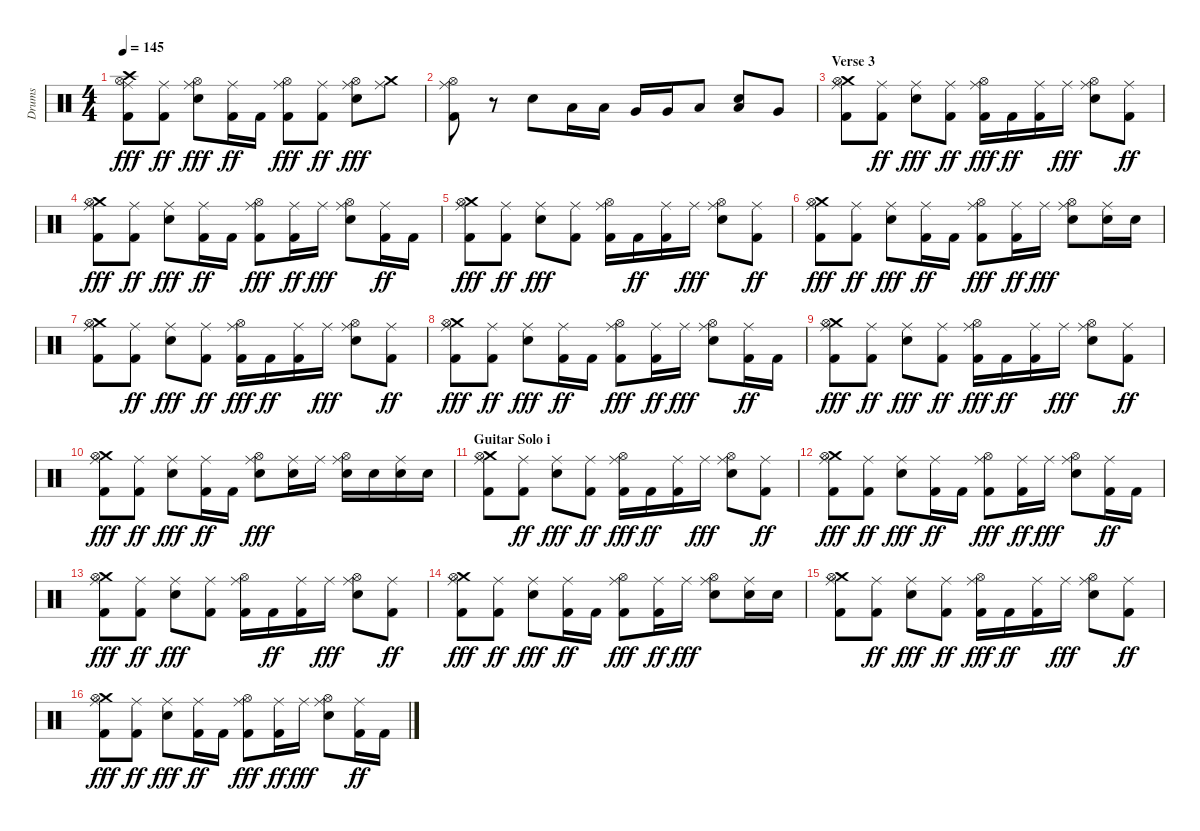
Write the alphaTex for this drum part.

\track ("Drums" "Drums") {instrument percussion}
\staff {score}
\articulation defaults
\ts (4 4)
\tempo 145
\clef neutral
\ks c
("Ride (middle)" "Crash high (hit)" "Hi-Hat (open)" "Kick (hit) 2").8{dy fff} ("Ride (middle)" "Kick (hit) 2").8{dy ff} ("Ride (middle)" "Hi-Hat (open)" "Snare (hit) 2").8{dy fff} ("Ride (middle)" "Kick (hit) 2").16{dy ff} "Kick (hit) 2".16 ("Ride (middle)" "Hi-Hat (open)" "Kick (hit) 2").8{dy fff} ("Ride (middle)" "Kick (hit) 2").8{dy ff} ("Ride (middle)" "Hi-Hat (open)" "Snare (hit) 2").8{dy fff} ("Ride (middle)" "Crash medium (hit)").8 |
("Ride (middle)" "Hi-Hat (open)" "Kick (hit) 2").8 r.8 "Snare (hit) 2".8 "Low Tom (hit)".16 "Low Tom (hit)".16 "Very Low Tom (hit)".16 "Very Low Tom (hit)".16 "Low Floor Tom (hit)".8 ("Low Tom (hit)" "Snare (hit) 2").8 "Very Low Tom (hit)".8 |
\section ("" "Verse 3")
("Ride (middle)" "Crash medium (hit)" "Hi-Hat (open)" "Kick (hit) 2").8 ("Ride (middle)" "Kick (hit) 2").8{dy ff} ("Ride (middle)" "Snare (hit) 2").8{dy fff} ("Ride (middle)" "Kick (hit) 2").8{dy ff} ("Ride (middle)" "Hi-Hat (open)" "Kick (hit) 2").16{dy fff} "Kick (hit) 2".16{dy ff} ("Ride (middle)" "Kick (hit) 2").16 "Ride (middle)".16{dy fff} ("Ride (middle)" "Hi-Hat (open)" "Snare (hit) 2").8 ("Ride (middle)" "Kick (hit) 2").8{dy ff} |
("Ride (middle)" "Crash medium (hit)" "Hi-Hat (open)" "Kick (hit) 2").8{dy fff} ("Ride (middle)" "Kick (hit) 2").8{dy ff} ("Ride (middle)" "Snare (hit) 2").8{dy fff} ("Ride (middle)" "Kick (hit) 2").16{dy ff} "Kick (hit) 2".16 ("Ride (middle)" "Hi-Hat (open)" "Kick (hit) 2").8{dy fff} ("Ride (middle)" "Kick (hit) 2").16{dy ff} "Ride (middle)".16{dy fff} ("Ride (middle)" "Hi-Hat (open)" "Snare (hit) 2").8 ("Ride (middle)" "Kick (hit) 2").16{dy ff} "Kick (hit) 2".16 |
("Ride (middle)" "Crash medium (hit)" "Hi-Hat (open)" "Kick (hit) 2").8{dy fff} ("Ride (middle)" "Kick (hit) 2").8{dy ff} ("Ride (middle)" "Snare (hit) 2").8{dy fff} ("Ride (middle)" "Kick (hit) 2").8 ("Ride (middle)" "Hi-Hat (open)" "Kick (hit) 2").16 "Kick (hit) 2".16{dy ff} ("Ride (middle)" "Kick (hit) 2").16 "Ride (middle)".16{dy fff} ("Ride (middle)" "Hi-Hat (open)" "Snare (hit) 2").8 ("Ride (middle)" "Kick (hit) 2").8{dy ff} |
("Ride (middle)" "Crash medium (hit)" "Hi-Hat (open)" "Kick (hit) 2").8{dy fff} ("Ride (middle)" "Kick (hit) 2").8{dy ff} ("Ride (middle)" "Snare (hit) 2").8{dy fff} ("Ride (middle)" "Kick (hit) 2").16{dy ff} "Kick (hit) 2".16 ("Ride (middle)" "Hi-Hat (open)" "Kick (hit) 2").8{dy fff} ("Ride (middle)" "Kick (hit) 2").16{dy ff} "Ride (middle)".16{dy fff} ("Ride (middle)" "Hi-Hat (open)" "Snare (hit) 2").8 ("Ride (middle)" "Snare (hit) 2").16 "Snare (hit) 2".16 |
("Ride (middle)" "Crash medium (hit)" "Hi-Hat (open)" "Kick (hit) 2").8 ("Ride (middle)" "Kick (hit) 2").8{dy ff} ("Ride (middle)" "Snare (hit) 2").8{dy fff} ("Ride (middle)" "Kick (hit) 2").8{dy ff} ("Ride (middle)" "Hi-Hat (open)" "Kick (hit) 2").16{dy fff} "Kick (hit) 2".16{dy ff} ("Ride (middle)" "Kick (hit) 2").16 "Ride (middle)".16{dy fff} ("Ride (middle)" "Hi-Hat (open)" "Snare (hit) 2").8 ("Ride (middle)" "Kick (hit) 2").8{dy ff} |
("Ride (middle)" "Crash medium (hit)" "Hi-Hat (open)" "Kick (hit) 2").8{dy fff} ("Ride (middle)" "Kick (hit) 2").8{dy ff} ("Ride (middle)" "Snare (hit) 2").8{dy fff} ("Ride (middle)" "Kick (hit) 2").16{dy ff} "Kick (hit) 2".16 ("Ride (middle)" "Hi-Hat (open)" "Kick (hit) 2").8{dy fff} ("Ride (middle)" "Kick (hit) 2").16{dy ff} "Ride (middle)".16{dy fff} ("Ride (middle)" "Hi-Hat (open)" "Snare (hit) 2").8 ("Ride (middle)" "Kick (hit) 2").16{dy ff} "Kick (hit) 2".16 |
("Ride (middle)" "Crash medium (hit)" "Hi-Hat (open)" "Kick (hit) 2").8{dy fff} ("Ride (middle)" "Kick (hit) 2").8{dy ff} ("Ride (middle)" "Snare (hit) 2").8{dy fff} ("Ride (middle)" "Kick (hit) 2").8{dy ff} ("Ride (middle)" "Hi-Hat (open)" "Kick (hit) 2").16{dy fff} "Kick (hit) 2".16{dy ff} ("Ride (middle)" "Kick (hit) 2").16 "Ride (middle)".16{dy fff} ("Ride (middle)" "Hi-Hat (open)" "Snare (hit) 2").8 ("Ride (middle)" "Kick (hit) 2").8{dy ff} |
("Ride (middle)" "Crash medium (hit)" "Hi-Hat (open)" "Kick (hit) 2").8{dy fff} ("Ride (middle)" "Kick (hit) 2").8{dy ff} ("Ride (middle)" "Snare (hit) 2").8{dy fff} ("Ride (middle)" "Kick (hit) 2").16{dy ff} "Kick (hit) 2".16 ("Ride (middle)" "Hi-Hat (open)" "Snare (hit) 2").8{dy fff} ("Ride (middle)" "Snare (hit) 2").16 "Ride (middle)".16 ("Ride (middle)" "Hi-Hat (open)" "Snare (hit) 2").16 "Snare (hit) 2".16 ("Ride (middle)" "Snare (hit) 2").16 "Snare (hit) 2".16 |
\section ("" "Guitar Solo i")
("Ride (middle)" "Crash medium (hit)" "Hi-Hat (open)" "Kick (hit) 2").8 ("Ride (middle)" "Kick (hit) 2").8{dy ff} ("Ride (middle)" "Snare (hit) 2").8{dy fff} ("Ride (middle)" "Kick (hit) 2").8{dy ff} ("Ride (middle)" "Hi-Hat (open)" "Kick (hit) 2").16{dy fff} "Kick (hit) 2".16{dy ff} ("Ride (middle)" "Kick (hit) 2").16 "Ride (middle)".16{dy fff} ("Ride (middle)" "Hi-Hat (open)" "Snare (hit) 2").8 ("Ride (middle)" "Kick (hit) 2").8{dy ff} |
("Ride (middle)" "Crash medium (hit)" "Hi-Hat (open)" "Kick (hit) 2").8{dy fff} ("Ride (middle)" "Kick (hit) 2").8{dy ff} ("Ride (middle)" "Snare (hit) 2").8{dy fff} ("Ride (middle)" "Kick (hit) 2").16{dy ff} "Kick (hit) 2".16 ("Ride (middle)" "Hi-Hat (open)" "Kick (hit) 2").8{dy fff} ("Ride (middle)" "Kick (hit) 2").16{dy ff} "Ride (middle)".16{dy fff} ("Ride (middle)" "Hi-Hat (open)" "Snare (hit) 2").8 ("Ride (middle)" "Kick (hit) 2").16{dy ff} "Kick (hit) 2".16 |
("Ride (middle)" "Crash medium (hit)" "Hi-Hat (open)" "Kick (hit) 2").8{dy fff} ("Ride (middle)" "Kick (hit) 2").8{dy ff} ("Ride (middle)" "Snare (hit) 2").8{dy fff} ("Ride (middle)" "Kick (hit) 2").8 ("Ride (middle)" "Hi-Hat (open)" "Kick (hit) 2").16 "Kick (hit) 2".16{dy ff} ("Ride (middle)" "Kick (hit) 2").16 "Ride (middle)".16{dy fff} ("Ride (middle)" "Hi-Hat (open)" "Snare (hit) 2").8 ("Ride (middle)" "Kick (hit) 2").8{dy ff} |
("Ride (middle)" "Crash medium (hit)" "Hi-Hat (open)" "Kick (hit) 2").8{dy fff} ("Ride (middle)" "Kick (hit) 2").8{dy ff} ("Ride (middle)" "Snare (hit) 2").8{dy fff} ("Ride (middle)" "Kick (hit) 2").16{dy ff} "Kick (hit) 2".16 ("Ride (middle)" "Hi-Hat (open)" "Kick (hit) 2").8{dy fff} ("Ride (middle)" "Kick (hit) 2").16{dy ff} "Ride (middle)".16{dy fff} ("Ride (middle)" "Hi-Hat (open)" "Snare (hit) 2").8 ("Ride (middle)" "Snare (hit) 2").16 "Snare (hit) 2".16 |
("Ride (middle)" "Crash medium (hit)" "Hi-Hat (open)" "Kick (hit) 2").8 ("Ride (middle)" "Kick (hit) 2").8{dy ff} ("Ride (middle)" "Snare (hit) 2").8{dy fff} ("Ride (middle)" "Kick (hit) 2").8{dy ff} ("Ride (middle)" "Hi-Hat (open)" "Kick (hit) 2").16{dy fff} "Kick (hit) 2".16{dy ff} ("Ride (middle)" "Kick (hit) 2").16 "Ride (middle)".16{dy fff} ("Ride (middle)" "Hi-Hat (open)" "Snare (hit) 2").8 ("Ride (middle)" "Kick (hit) 2").8{dy ff} |
("Ride (middle)" "Crash medium (hit)" "Hi-Hat (open)" "Kick (hit) 2").8{dy fff} ("Ride (middle)" "Kick (hit) 2").8{dy ff} ("Ride (middle)" "Snare (hit) 2").8{dy fff} ("Ride (middle)" "Kick (hit) 2").16{dy ff} "Kick (hit) 2".16 ("Ride (middle)" "Hi-Hat (open)" "Kick (hit) 2").8{dy fff} ("Ride (middle)" "Kick (hit) 2").16{dy ff} "Ride (middle)".16{dy fff} ("Ride (middle)" "Hi-Hat (open)" "Snare (hit) 2").8 ("Ride (middle)" "Kick (hit) 2").16{dy ff} "Kick (hit) 2".16
